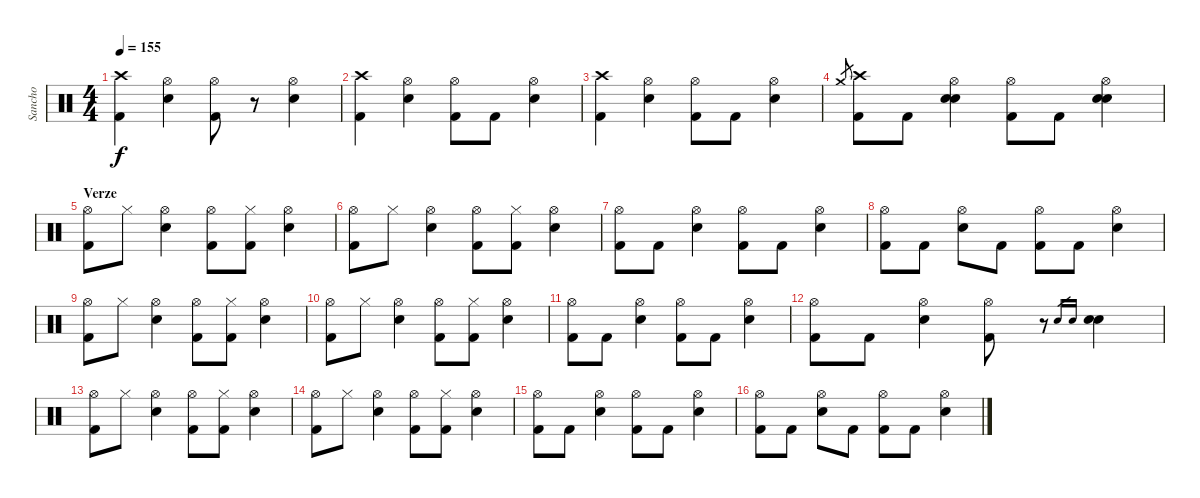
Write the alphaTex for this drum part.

\track ("Sancho" "Sancho") {instrument percussion}
\staff {score}
\articulation defaults
\ts (4 4)
\tempo 155
\clef neutral
\ks c
("Crash high (hit)" "Kick (hit) 2").4{dy f} ("Hi-Hat (open)" "Electric Snare (hit)").4 ("Hi-Hat (open)" "Kick (hit) 2").8 r.8 ("Hi-Hat (open)" "Electric Snare (hit)").4 |
("Crash high (hit)" "Kick (hit) 2").4 ("Hi-Hat (open)" "Electric Snare (hit)").4 ("Hi-Hat (open)" "Kick (hit) 2").8 "Kick (hit) 2".8 ("Hi-Hat (open)" "Electric Snare (hit)").4 |
("Crash high (hit)" "Kick (hit) 2").4 ("Hi-Hat (open)" "Electric Snare (hit)").4 ("Hi-Hat (open)" "Kick (hit) 2").8 "Kick (hit) 2".8 ("Hi-Hat (open)" "Electric Snare (hit)").4 |
"Crash medium (hit)".8{gr} ("Crash high (hit)" "Kick (hit) 2").8 "Kick (hit) 2".8 ("Hi-Hat (open)" "Electric Snare (hit)" "Electric Snare (hit)").4 ("Hi-Hat (open)" "Kick (hit) 2").8 "Kick (hit) 2".8 ("Hi-Hat (open)" "Electric Snare (hit)" "Electric Snare (hit)").4 |
\section ("" "Verze")
("Hi-Hat (open)" "Kick (hit) 2").8 "Hi-Hat (closed)".8 ("Hi-Hat (open)" "Electric Snare (hit)").4 ("Hi-Hat (open)" "Kick (hit) 2").8 ("Hi-Hat (closed)" "Kick (hit) 2").8 ("Hi-Hat (open)" "Electric Snare (hit)").4 |
("Hi-Hat (open)" "Kick (hit) 2").8 "Hi-Hat (closed)".8 ("Hi-Hat (open)" "Electric Snare (hit)").4 ("Hi-Hat (open)" "Kick (hit) 2").8 ("Hi-Hat (closed)" "Kick (hit) 2").8 ("Hi-Hat (open)" "Electric Snare (hit)").4 |
("Hi-Hat (open)" "Kick (hit) 2").8 "Kick (hit) 2".8 ("Hi-Hat (open)" "Electric Snare (hit)").4 ("Hi-Hat (open)" "Kick (hit) 2").8 "Kick (hit) 2".8 ("Hi-Hat (open)" "Electric Snare (hit)").4 |
("Hi-Hat (open)" "Kick (hit) 2").8 "Kick (hit) 2".8 ("Hi-Hat (open)" "Electric Snare (hit)").8 "Kick (hit) 2".8 ("Hi-Hat (open)" "Kick (hit) 2").8 "Kick (hit) 2".8 ("Hi-Hat (open)" "Electric Snare (hit)").4 |
("Hi-Hat (open)" "Kick (hit) 2").8 "Hi-Hat (closed)".8 ("Hi-Hat (open)" "Electric Snare (hit)").4 ("Hi-Hat (open)" "Kick (hit) 2").8 ("Hi-Hat (closed)" "Kick (hit) 2").8 ("Hi-Hat (open)" "Electric Snare (hit)").4 |
("Hi-Hat (open)" "Kick (hit) 2").8 "Hi-Hat (closed)".8 ("Hi-Hat (open)" "Electric Snare (hit)").4 ("Hi-Hat (open)" "Kick (hit) 2").8 ("Hi-Hat (closed)" "Kick (hit) 2").8 ("Hi-Hat (open)" "Electric Snare (hit)").4 |
("Hi-Hat (open)" "Kick (hit) 2").8 "Kick (hit) 2".8 ("Hi-Hat (open)" "Electric Snare (hit)").4 ("Hi-Hat (open)" "Kick (hit) 2").8 "Kick (hit) 2".8 ("Hi-Hat (open)" "Electric Snare (hit)").4 |
("Hi-Hat (open)" "Kick (hit) 2").8 "Kick (hit) 2".8 ("Hi-Hat (open)" "Electric Snare (hit)").4 ("Hi-Hat (open)" "Kick (hit) 2").8 r.8 "Snare (hit) 2".16{gr} "Snare (hit) 2".16{gr} ("Electric Snare (hit)" "Electric Snare (hit)").4 |
("Hi-Hat (open)" "Kick (hit) 2").8 "Hi-Hat (closed)".8 ("Hi-Hat (open)" "Electric Snare (hit)").4 ("Hi-Hat (open)" "Kick (hit) 2").8 ("Hi-Hat (closed)" "Kick (hit) 2").8 ("Hi-Hat (open)" "Electric Snare (hit)").4 |
("Hi-Hat (open)" "Kick (hit) 2").8 "Hi-Hat (closed)".8 ("Hi-Hat (open)" "Electric Snare (hit)").4 ("Hi-Hat (open)" "Kick (hit) 2").8 ("Hi-Hat (closed)" "Kick (hit) 2").8 ("Hi-Hat (open)" "Electric Snare (hit)").4 |
("Hi-Hat (open)" "Kick (hit) 2").8 "Kick (hit) 2".8 ("Hi-Hat (open)" "Electric Snare (hit)").4 ("Hi-Hat (open)" "Kick (hit) 2").8 "Kick (hit) 2".8 ("Hi-Hat (open)" "Electric Snare (hit)").4 |
("Hi-Hat (open)" "Kick (hit) 2").8 "Kick (hit) 2".8 ("Hi-Hat (open)" "Electric Snare (hit)").8 "Kick (hit) 2".8 ("Hi-Hat (open)" "Kick (hit) 2").8 "Kick (hit) 2".8 ("Hi-Hat (open)" "Electric Snare (hit)").4
